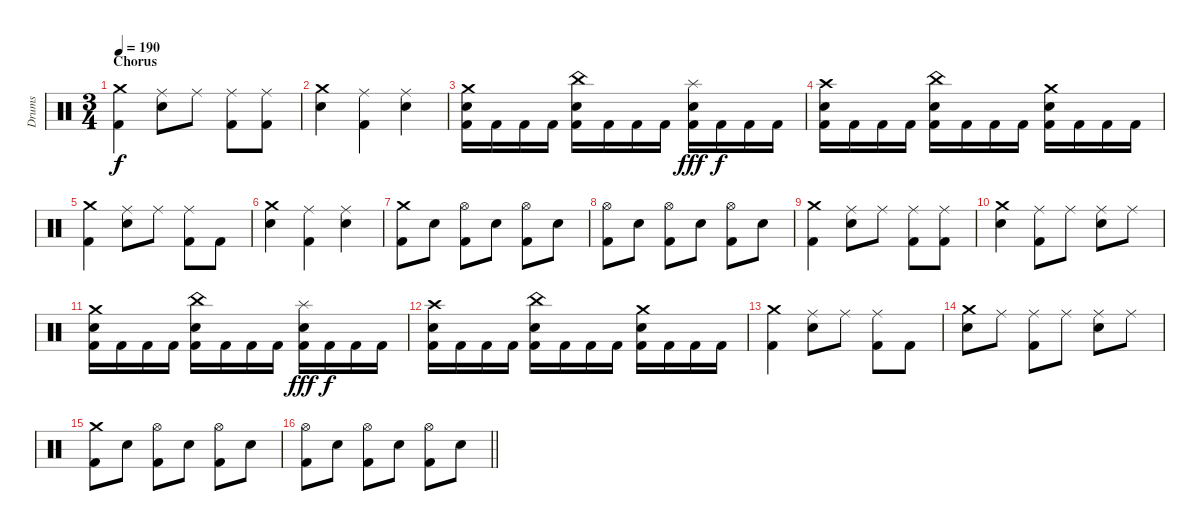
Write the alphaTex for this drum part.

\track ("Drums" "Drums") {instrument percussion}
\staff {score}
\articulation defaults
\ts (3 4)
\section ("" "Chorus")
\tempo 190
\clef neutral
\ks c
("Crash medium (hit)" "Kick (hit) 2").4{dy f} ("Ride (middle)" "Electric Snare (hit)").8 "Ride (middle)".8 ("Ride (middle)" "Kick (hit) 2").8 ("Ride (middle)" "Kick (hit) 2").8 |
("Crash medium (hit)" "Electric Snare (hit)").4 ("Ride (middle)" "Kick (hit) 2").4 ("Ride (middle)" "Electric Snare (hit)").4 |
("Crash medium (hit)" "Electric Snare (hit)" "Kick (hit) 2").16 "Kick (hit) 2".16 "Kick (hit) 2".16 "Kick (hit) 2".16 ("China (hit)" "Electric Snare (hit)" "Kick (hit) 2").16 "Kick (hit) 2".16 "Kick (hit) 2".16 "Kick (hit) 2".16 ("Splash (hit)" "Electric Snare (hit)" "Kick (hit) 2").16{dy fff} "Kick (hit) 2".16{dy f} "Kick (hit) 2".16 "Kick (hit) 2".16 |
("Crash high (hit)" "Electric Snare (hit)" "Kick (hit) 2").16 "Kick (hit) 2".16 "Kick (hit) 2".16 "Kick (hit) 2".16 ("China (hit)" "Electric Snare (hit)" "Kick (hit) 2").16 "Kick (hit) 2".16 "Kick (hit) 2".16 "Kick (hit) 2".16 ("Crash medium (hit)" "Electric Snare (hit)" "Kick (hit) 2").16 "Kick (hit) 2".16 "Kick (hit) 2".16 "Kick (hit) 2".16 |
("Crash medium (hit)" "Kick (hit) 2").4 ("Ride (middle)" "Electric Snare (hit)").8 "Ride (middle)".8 ("Ride (middle)" "Kick (hit) 2").8 "Kick (hit) 2".8 |
("Crash medium (hit)" "Electric Snare (hit)").4 ("Ride (middle)" "Kick (hit) 2").4 ("Ride (middle)" "Electric Snare (hit)").4 |
("Crash medium (hit)" "Kick (hit) 2").8 "Electric Snare (hit)".8 ("Hi-Hat (open)" "Kick (hit) 2").8 "Electric Snare (hit)".8 ("Hi-Hat (open)" "Kick (hit) 2").8 "Electric Snare (hit)".8 |
("Hi-Hat (open)" "Kick (hit) 2").8 "Electric Snare (hit)".8 ("Hi-Hat (open)" "Kick (hit) 2").8 "Electric Snare (hit)".8 ("Hi-Hat (open)" "Kick (hit) 2").8 "Electric Snare (hit)".8 |
("Crash medium (hit)" "Kick (hit) 2").4 ("Ride (middle)" "Electric Snare (hit)").8 "Ride (middle)".8 ("Ride (middle)" "Kick (hit) 2").8 ("Ride (middle)" "Kick (hit) 2").8 |
("Crash medium (hit)" "Electric Snare (hit)").4 ("Ride (middle)" "Kick (hit) 2").8 "Ride (middle)".8 ("Ride (middle)" "Electric Snare (hit)").8 "Ride (middle)".8 |
("Crash medium (hit)" "Electric Snare (hit)" "Kick (hit) 2").16 "Kick (hit) 2".16 "Kick (hit) 2".16 "Kick (hit) 2".16 ("China (hit)" "Electric Snare (hit)" "Kick (hit) 2").16 "Kick (hit) 2".16 "Kick (hit) 2".16 "Kick (hit) 2".16 ("Splash (hit)" "Electric Snare (hit)" "Kick (hit) 2").16{dy fff} "Kick (hit) 2".16{dy f} "Kick (hit) 2".16 "Kick (hit) 2".16 |
("Crash high (hit)" "Electric Snare (hit)" "Kick (hit) 2").16 "Kick (hit) 2".16 "Kick (hit) 2".16 "Kick (hit) 2".16 ("China (hit)" "Electric Snare (hit)" "Kick (hit) 2").16 "Kick (hit) 2".16 "Kick (hit) 2".16 "Kick (hit) 2".16 ("Crash medium (hit)" "Electric Snare (hit)" "Kick (hit) 2").16 "Kick (hit) 2".16 "Kick (hit) 2".16 "Kick (hit) 2".16 |
("Crash medium (hit)" "Kick (hit) 2").4 ("Ride (middle)" "Electric Snare (hit)").8 "Ride (middle)".8 ("Ride (middle)" "Kick (hit) 2").8 "Kick (hit) 2".8 |
("Crash medium (hit)" "Electric Snare (hit)").8 "Ride (middle)".8 ("Ride (middle)" "Kick (hit) 2").8 "Ride (middle)".8 ("Ride (middle)" "Electric Snare (hit)").8 "Ride (middle)".8 |
("Crash medium (hit)" "Kick (hit) 2").8 "Electric Snare (hit)".8 ("Hi-Hat (open)" "Kick (hit) 2").8 "Electric Snare (hit)".8 ("Hi-Hat (open)" "Kick (hit) 2").8 "Electric Snare (hit)".8 |
\barLineRight lightlight
("Hi-Hat (open)" "Kick (hit) 2").8 "Electric Snare (hit)".8 ("Hi-Hat (open)" "Kick (hit) 2").8 "Electric Snare (hit)".8 ("Hi-Hat (open)" "Kick (hit) 2").8 "Electric Snare (hit)".8
